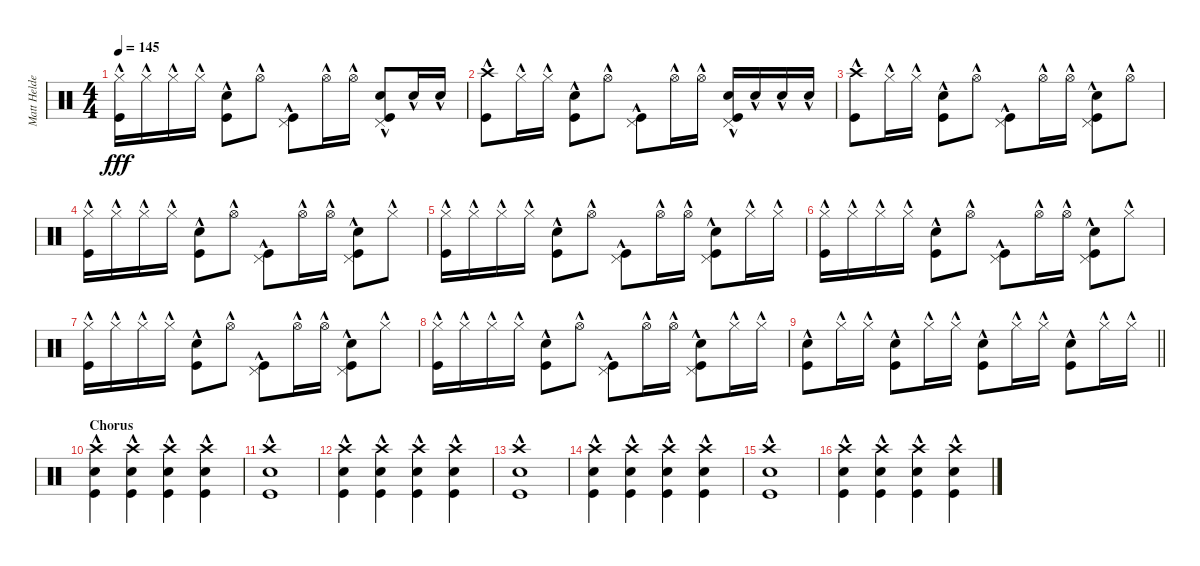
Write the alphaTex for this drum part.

\track ("Matt Helders - Drums" "Matt Helde") {instrument percussion}
\staff {score}
\articulation defaults
\ts (4 4)
\tempo 145
\clef neutral
\ks c
("Hi-Hat (closed)"{hac} "Kick (hit)"{hac}).16{dy fff} "Hi-Hat (closed)"{hac}.16 "Hi-Hat (closed)"{hac}.16 "Hi-Hat (closed)"{hac}.16 ("Snare (hit) 2"{hac} "Kick (hit)"{hac}).8 "Hi-Hat (open)"{hac}.8 ("Pedal Hi-Hat (hit)"{hac} "Kick (hit)"{hac}).8 "Hi-Hat (open)"{hac}.16 "Hi-Hat (open)"{hac}.16 ("Pedal Hi-Hat (hit)"{hac} "Snare (hit) 2"{hac} "Kick (hit)"{hac}).8 "Snare (hit) 2"{hac}.16 "Snare (hit) 2"{hac}.16 |
("Crash high (hit)"{hac} "Kick (hit)"{hac}).8 "Hi-Hat (closed)"{hac}.16 "Hi-Hat (closed)"{hac}.16 ("Snare (hit) 2"{hac} "Kick (hit)"{hac}).8 "Hi-Hat (open)"{hac}.8 ("Pedal Hi-Hat (hit)"{hac} "Kick (hit)"{hac}).8 "Hi-Hat (open)"{hac}.16 "Hi-Hat (open)"{hac}.16 ("Pedal Hi-Hat (hit)"{hac} "Snare (hit) 2"{hac} "Kick (hit)"{hac}).16 "Snare (hit) 2"{hac}.16 "Snare (hit) 2"{hac}.16 "Snare (hit) 2"{hac}.16 |
("Crash high (hit)"{hac} "Kick (hit)"{hac}).8 "Hi-Hat (closed)"{hac}.16 "Hi-Hat (closed)"{hac}.16 ("Snare (hit) 2"{hac} "Kick (hit)"{hac}).8 "Hi-Hat (open)"{hac}.8 ("Pedal Hi-Hat (hit)"{hac} "Kick (hit)"{hac}).8 "Hi-Hat (open)"{hac}.16 "Hi-Hat (open)"{hac}.16 ("Pedal Hi-Hat (hit)"{hac} "Snare (hit) 2"{hac} "Kick (hit)"{hac}).8 "Hi-Hat (open)"{hac}.8 |
("Hi-Hat (closed)"{hac} "Kick (hit)"{hac}).16 "Hi-Hat (closed)"{hac}.16 "Hi-Hat (closed)"{hac}.16 "Hi-Hat (closed)"{hac}.16 ("Snare (hit) 2"{hac} "Kick (hit)"{hac}).8 "Hi-Hat (open)"{hac}.8 ("Pedal Hi-Hat (hit)"{hac} "Kick (hit)"{hac}).8 "Hi-Hat (open)"{hac}.16 "Hi-Hat (open)"{hac}.16 ("Pedal Hi-Hat (hit)"{hac} "Snare (hit) 2"{hac} "Kick (hit)"{hac}).8 "Hi-Hat (closed)"{hac}.8 |
("Hi-Hat (closed)"{hac} "Kick (hit)"{hac}).16 "Hi-Hat (closed)"{hac}.16 "Hi-Hat (closed)"{hac}.16 "Hi-Hat (closed)"{hac}.16 ("Snare (hit) 2"{hac} "Kick (hit)"{hac}).8 "Hi-Hat (open)"{hac}.8 ("Pedal Hi-Hat (hit)"{hac} "Kick (hit)"{hac}).8 "Hi-Hat (open)"{hac}.16 "Hi-Hat (open)"{hac}.16 ("Pedal Hi-Hat (hit)"{hac} "Snare (hit) 2"{hac} "Kick (hit)"{hac}).8 "Hi-Hat (closed)"{hac}.16 "Hi-Hat (closed)"{hac}.16 |
("Hi-Hat (closed)"{hac} "Kick (hit)"{hac}).16 "Hi-Hat (closed)"{hac}.16 "Hi-Hat (closed)"{hac}.16 "Hi-Hat (closed)"{hac}.16 ("Snare (hit) 2"{hac} "Kick (hit)"{hac}).8 "Hi-Hat (open)"{hac}.8 ("Pedal Hi-Hat (hit)"{hac} "Kick (hit)"{hac}).8 "Hi-Hat (open)"{hac}.16 "Hi-Hat (open)"{hac}.16 ("Pedal Hi-Hat (hit)"{hac} "Snare (hit) 2"{hac} "Kick (hit)"{hac}).8 "Hi-Hat (closed)"{hac}.8 |
("Hi-Hat (closed)"{hac} "Kick (hit)"{hac}).16 "Hi-Hat (closed)"{hac}.16 "Hi-Hat (closed)"{hac}.16 "Hi-Hat (closed)"{hac}.16 ("Snare (hit) 2"{hac} "Kick (hit)"{hac}).8 "Hi-Hat (open)"{hac}.8 ("Pedal Hi-Hat (hit)"{hac} "Kick (hit)"{hac}).8 "Hi-Hat (open)"{hac}.16 "Hi-Hat (open)"{hac}.16 ("Pedal Hi-Hat (hit)"{hac} "Snare (hit) 2"{hac} "Kick (hit)"{hac}).8 "Hi-Hat (closed)"{hac}.8 |
("Hi-Hat (closed)"{hac} "Kick (hit)"{hac}).16 "Hi-Hat (closed)"{hac}.16 "Hi-Hat (closed)"{hac}.16 "Hi-Hat (closed)"{hac}.16 ("Snare (hit) 2"{hac} "Kick (hit)"{hac}).8 "Hi-Hat (open)"{hac}.8 ("Pedal Hi-Hat (hit)"{hac} "Kick (hit)"{hac}).8 "Hi-Hat (open)"{hac}.16 "Hi-Hat (open)"{hac}.16 ("Pedal Hi-Hat (hit)"{hac} "Snare (hit) 2"{hac} "Kick (hit)"{hac}).8 "Hi-Hat (closed)"{hac}.16 "Hi-Hat (closed)"{hac}.16 |
\barLineRight lightlight
("Snare (hit) 2"{hac} "Kick (hit)"{hac}).8 "Hi-Hat (closed)"{hac}.16 "Hi-Hat (closed)"{hac}.16 ("Snare (hit) 2"{hac} "Kick (hit)"{hac}).8 "Hi-Hat (closed)"{hac}.16 "Hi-Hat (closed)"{hac}.16 ("Snare (hit) 2"{hac} "Kick (hit)"{hac}).8 "Hi-Hat (closed)"{hac}.16 "Hi-Hat (closed)"{hac}.16 ("Snare (hit) 2"{hac} "Kick (hit)"{hac}).8 "Hi-Hat (closed)"{hac}.16 "Hi-Hat (closed)"{hac}.16 |
\section ("" "Chorus")
("Crash high (hit)"{hac} "Snare (hit) 2"{hac} "Kick (hit)"{hac}).4 ("Crash high (hit)"{hac} "Snare (hit) 2"{hac} "Kick (hit)"{hac}).4 ("Crash high (hit)"{hac} "Snare (hit) 2"{hac} "Kick (hit)"{hac}).4 ("Crash high (hit)"{hac} "Snare (hit) 2"{hac} "Kick (hit)"{hac}).4 |
("Crash high (hit)"{hac} "Snare (hit) 2"{hac} "Kick (hit)"{hac}).1 |
("Crash high (hit)"{hac} "Snare (hit) 2"{hac} "Kick (hit)"{hac}).4 ("Crash high (hit)"{hac} "Snare (hit) 2"{hac} "Kick (hit)"{hac}).4 ("Crash high (hit)"{hac} "Snare (hit) 2"{hac} "Kick (hit)"{hac}).4 ("Crash high (hit)"{hac} "Snare (hit) 2"{hac} "Kick (hit)"{hac}).4 |
("Crash high (hit)"{hac} "Snare (hit) 2"{hac} "Kick (hit)"{hac}).1 |
("Crash high (hit)"{hac} "Snare (hit) 2"{hac} "Kick (hit)"{hac}).4 ("Crash high (hit)"{hac} "Snare (hit) 2"{hac} "Kick (hit)"{hac}).4 ("Crash high (hit)"{hac} "Snare (hit) 2"{hac} "Kick (hit)"{hac}).4 ("Crash high (hit)"{hac} "Snare (hit) 2"{hac} "Kick (hit)"{hac}).4 |
("Crash high (hit)"{hac} "Snare (hit) 2"{hac} "Kick (hit)"{hac}).1 |
("Crash high (hit)"{hac} "Snare (hit) 2"{hac} "Kick (hit)"{hac}).4 ("Crash high (hit)"{hac} "Snare (hit) 2"{hac} "Kick (hit)"{hac}).4 ("Crash high (hit)"{hac} "Snare (hit) 2"{hac} "Kick (hit)"{hac}).4 ("Crash high (hit)"{hac} "Snare (hit) 2"{hac} "Kick (hit)"{hac}).4
